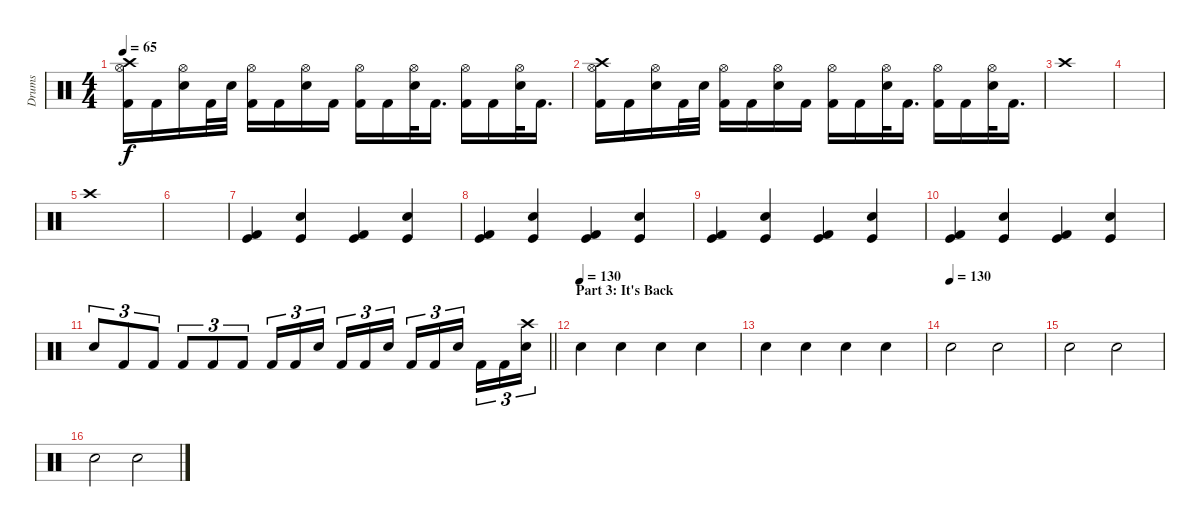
\track ("Drums" "Drums") {instrument percussion}
\staff {score}
\articulation defaults
\ts (4 4)
\tempo 65
\clef neutral
\ks c
("Crash high (hit)" "Hi-Hat (open)" "Kick (hit) 2").16{dy f} "Kick (hit) 2".16 ("Hi-Hat (open)" "Snare (hit) 2").16 "Kick (hit) 2".32 "Snare (hit) 2".32 ("Hi-Hat (open)" "Kick (hit) 2").16 "Kick (hit) 2".16 ("Hi-Hat (open)" "Snare (hit) 2").16 "Kick (hit) 2".16 ("Hi-Hat (open)" "Kick (hit) 2").16 "Kick (hit) 2".16 ("Hi-Hat (open)" "Snare (hit) 2").32 "Kick (hit) 2".16{d} ("Hi-Hat (open)" "Kick (hit) 2").16 "Kick (hit) 2".16 ("Hi-Hat (open)" "Snare (hit) 2").32 "Kick (hit) 2".16{d} |
("Crash high (hit)" "Hi-Hat (open)" "Kick (hit) 2").16 "Kick (hit) 2".16 ("Hi-Hat (open)" "Snare (hit) 2").16 "Kick (hit) 2".32 "Snare (hit) 2".32 ("Hi-Hat (open)" "Kick (hit) 2").16 "Kick (hit) 2".16 ("Hi-Hat (open)" "Snare (hit) 2").16 "Kick (hit) 2".16 ("Hi-Hat (open)" "Kick (hit) 2").16 "Kick (hit) 2".16 ("Hi-Hat (open)" "Snare (hit) 2").32 "Kick (hit) 2".16{d} ("Hi-Hat (open)" "Kick (hit) 2").16 "Kick (hit) 2".16 ("Hi-Hat (open)" "Snare (hit) 2").32 "Kick (hit) 2".16{d} |
"Crash high (hit)".1 |
|
"Crash high (hit)".1 |
|
("Kick (hit)" "Kick (hit) 2").4 ("Kick (hit)" "Snare (hit) 2").4 ("Kick (hit)" "Kick (hit) 2").4 ("Kick (hit)" "Snare (hit) 2").4 |
("Kick (hit)" "Kick (hit) 2").4 ("Kick (hit)" "Snare (hit) 2").4 ("Kick (hit)" "Kick (hit) 2").4 ("Kick (hit)" "Snare (hit) 2").4 |
("Kick (hit)" "Kick (hit) 2").4 ("Kick (hit)" "Snare (hit) 2").4 ("Kick (hit)" "Kick (hit) 2").4 ("Kick (hit)" "Snare (hit) 2").4 |
("Kick (hit)" "Kick (hit) 2").4 ("Kick (hit)" "Snare (hit) 2").4 ("Kick (hit)" "Kick (hit) 2").4 ("Kick (hit)" "Snare (hit) 2").4 |
\barLineRight lightlight "Snare (hit) 2".8{tu (3 2)} "Kick (hit) 2".8{tu (3 2)} "Kick (hit) 2".8{tu (3 2)} "Kick (hit) 2".8{tu (3 2)} "Kick (hit) 2".8{tu (3 2)} "Kick (hit) 2".8{tu (3 2)} "Kick (hit) 2".16{tu (3 2)} "Kick (hit) 2".16{tu (3 2)} "Snare (hit) 2".16{tu (3 2)} "Kick (hit) 2".16{tu (3 2)} "Kick (hit) 2".16{tu (3 2)} "Snare (hit) 2".16{tu (3 2)} "Kick (hit) 2".16{tu (3 2)} "Kick (hit) 2".16{tu (3 2)} "Snare (hit) 2".16{tu (3 2)} "Kick (hit) 2".16{tu (3 2)} "Kick (hit) 2".16{tu (3 2)}
("Crash high (hit)" "Snare (hit) 2").16{tu (3 2)} |
\section ("" "Part 3: It's Back")
\tempo (130)
"Snare (hit) 2".4 "Snare (hit) 2".4 "Snare (hit) 2".4 "Snare (hit) 2".4 |
"Snare (hit) 2".4 "Snare (hit) 2".4 "Snare (hit) 2".4 "Snare (hit) 2".4 |
\tempo (130)
"Snare (hit) 2".2 "Snare (hit) 2".2 |
"Snare (hit) 2".2 "Snare (hit) 2".2 |
"Snare (hit) 2".2 "Snare (hit) 2".2
